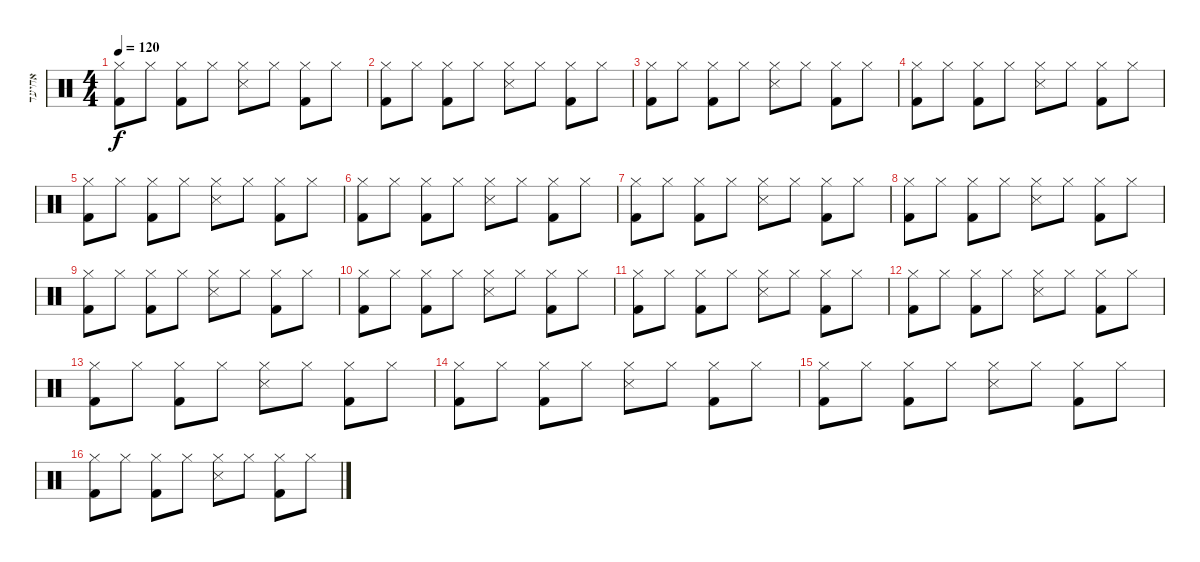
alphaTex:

\track ("אחיעד" "אחיעד") {instrument percussion}
\staff {score}
\articulation defaults
\ts (4 4)
\tempo 120
\clef neutral
\ks c
("Hi-Hat (closed)" "Kick (hit) 2").8{dy f} "Hi-Hat (closed)".8 ("Hi-Hat (closed)" "Kick (hit) 2").8 "Hi-Hat (closed)".8 ("Hi-Hat (closed)" "Snare (side stick) 3").8 "Hi-Hat (closed)".8 ("Hi-Hat (closed)" "Kick (hit) 2").8 "Hi-Hat (closed)".8 |
("Hi-Hat (closed)" "Kick (hit) 2").8 "Hi-Hat (closed)".8 ("Hi-Hat (closed)" "Kick (hit) 2").8 "Hi-Hat (closed)".8 ("Hi-Hat (closed)" "Snare (side stick) 3").8 "Hi-Hat (closed)".8 ("Hi-Hat (closed)" "Kick (hit) 2").8 "Hi-Hat (closed)".8 |
("Hi-Hat (closed)" "Kick (hit) 2").8 "Hi-Hat (closed)".8 ("Hi-Hat (closed)" "Kick (hit) 2").8 "Hi-Hat (closed)".8 ("Hi-Hat (closed)" "Snare (side stick) 3").8 "Hi-Hat (closed)".8 ("Hi-Hat (closed)" "Kick (hit) 2").8 "Hi-Hat (closed)".8 |
("Hi-Hat (closed)" "Kick (hit) 2").8 "Hi-Hat (closed)".8 ("Hi-Hat (closed)" "Kick (hit) 2").8 "Hi-Hat (closed)".8 ("Hi-Hat (closed)" "Snare (side stick) 3").8 "Hi-Hat (closed)".8 ("Hi-Hat (closed)" "Kick (hit) 2").8 "Hi-Hat (closed)".8 |
("Hi-Hat (closed)" "Kick (hit) 2").8 "Hi-Hat (closed)".8 ("Hi-Hat (closed)" "Kick (hit) 2").8 "Hi-Hat (closed)".8 ("Hi-Hat (closed)" "Snare (side stick) 3").8 "Hi-Hat (closed)".8 ("Hi-Hat (closed)" "Kick (hit) 2").8 "Hi-Hat (closed)".8 |
("Hi-Hat (closed)" "Kick (hit) 2").8 "Hi-Hat (closed)".8 ("Hi-Hat (closed)" "Kick (hit) 2").8 "Hi-Hat (closed)".8 ("Hi-Hat (closed)" "Snare (side stick) 3").8 "Hi-Hat (closed)".8 ("Hi-Hat (closed)" "Kick (hit) 2").8 "Hi-Hat (closed)".8 |
("Hi-Hat (closed)" "Kick (hit) 2").8 "Hi-Hat (closed)".8 ("Hi-Hat (closed)" "Kick (hit) 2").8 "Hi-Hat (closed)".8 ("Hi-Hat (closed)" "Snare (side stick) 3").8 "Hi-Hat (closed)".8 ("Hi-Hat (closed)" "Kick (hit) 2").8 "Hi-Hat (closed)".8 |
("Hi-Hat (closed)" "Kick (hit) 2").8 "Hi-Hat (closed)".8 ("Hi-Hat (closed)" "Kick (hit) 2").8 "Hi-Hat (closed)".8 ("Hi-Hat (closed)" "Snare (side stick) 3").8 "Hi-Hat (closed)".8 ("Hi-Hat (closed)" "Kick (hit) 2").8 "Hi-Hat (closed)".8 |
("Hi-Hat (closed)" "Kick (hit) 2").8 "Hi-Hat (closed)".8 ("Hi-Hat (closed)" "Kick (hit) 2").8 "Hi-Hat (closed)".8 ("Hi-Hat (closed)" "Snare (side stick) 3").8 "Hi-Hat (closed)".8 ("Hi-Hat (closed)" "Kick (hit) 2").8 "Hi-Hat (closed)".8 |
("Hi-Hat (closed)" "Kick (hit) 2").8 "Hi-Hat (closed)".8 ("Hi-Hat (closed)" "Kick (hit) 2").8 "Hi-Hat (closed)".8 ("Hi-Hat (closed)" "Snare (side stick) 3").8 "Hi-Hat (closed)".8 ("Hi-Hat (closed)" "Kick (hit) 2").8 "Hi-Hat (closed)".8 |
("Hi-Hat (closed)" "Kick (hit) 2").8 "Hi-Hat (closed)".8 ("Hi-Hat (closed)" "Kick (hit) 2").8 "Hi-Hat (closed)".8 ("Hi-Hat (closed)" "Snare (side stick) 3").8 "Hi-Hat (closed)".8 ("Hi-Hat (closed)" "Kick (hit) 2").8 "Hi-Hat (closed)".8 |
("Hi-Hat (closed)" "Kick (hit) 2").8 "Hi-Hat (closed)".8 ("Hi-Hat (closed)" "Kick (hit) 2").8 "Hi-Hat (closed)".8 ("Hi-Hat (closed)" "Snare (side stick) 3").8 "Hi-Hat (closed)".8 ("Hi-Hat (closed)" "Kick (hit) 2").8 "Hi-Hat (closed)".8 |
("Hi-Hat (closed)" "Kick (hit) 2").8 "Hi-Hat (closed)".8 ("Hi-Hat (closed)" "Kick (hit) 2").8 "Hi-Hat (closed)".8 ("Hi-Hat (closed)" "Snare (side stick) 3").8 "Hi-Hat (closed)".8 ("Hi-Hat (closed)" "Kick (hit) 2").8 "Hi-Hat (closed)".8 |
("Hi-Hat (closed)" "Kick (hit) 2").8 "Hi-Hat (closed)".8 ("Hi-Hat (closed)" "Kick (hit) 2").8 "Hi-Hat (closed)".8 ("Hi-Hat (closed)" "Snare (side stick) 3").8 "Hi-Hat (closed)".8 ("Hi-Hat (closed)" "Kick (hit) 2").8 "Hi-Hat (closed)".8 |
("Hi-Hat (closed)" "Kick (hit) 2").8 "Hi-Hat (closed)".8 ("Hi-Hat (closed)" "Kick (hit) 2").8 "Hi-Hat (closed)".8 ("Hi-Hat (closed)" "Snare (side stick) 3").8 "Hi-Hat (closed)".8 ("Hi-Hat (closed)" "Kick (hit) 2").8 "Hi-Hat (closed)".8 |
("Hi-Hat (closed)" "Kick (hit) 2").8 "Hi-Hat (closed)".8 ("Hi-Hat (closed)" "Kick (hit) 2").8 "Hi-Hat (closed)".8 ("Hi-Hat (closed)" "Snare (side stick) 3").8 "Hi-Hat (closed)".8 ("Hi-Hat (closed)" "Kick (hit) 2").8 "Hi-Hat (closed)".8
